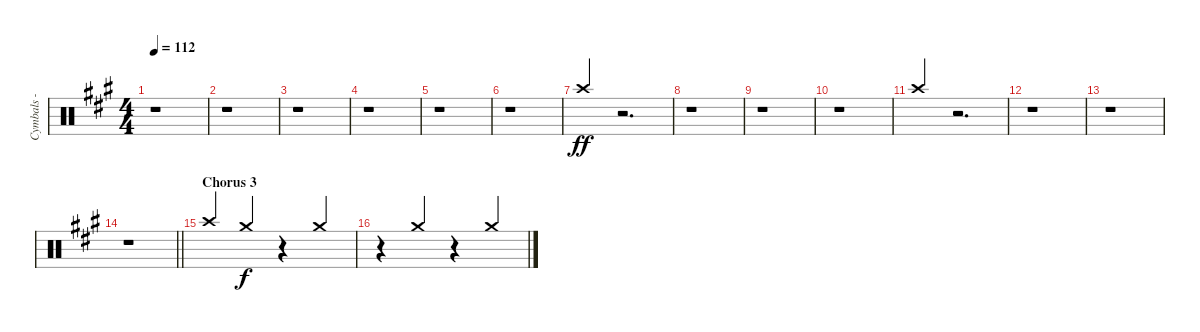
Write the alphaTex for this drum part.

\track ("Cymbals - crash" "Cymbals - ") {instrument percussion}
\staff {score}
\articulation defaults
\ts (4 4)
\tempo 112
\clef neutral
\ks f#minor
r.1{dy ff} |
r.1 |
r.1 |
r.1 |
r.1 |
r.1 |
"Crash high (hit)".4{beam Up} r.2{d} |
r.1 |
r.1 |
r.1 |
"Crash high (hit)".4{beam Up} r.2{d} |
r.1 |
r.1 |
\barLineRight lightlight
r.1 |
\section ("" "Chorus 3")
"Crash high (hit)".4{beam Up} "Crash medium (hit)".4{dy f volume 3 balance 4 beam Up} r.4 "Crash medium (hit)".4{beam Up} |
r.4{beam Up} "Crash medium (hit)".4{beam Up} r.4 "Crash medium (hit)".4{beam Up}
